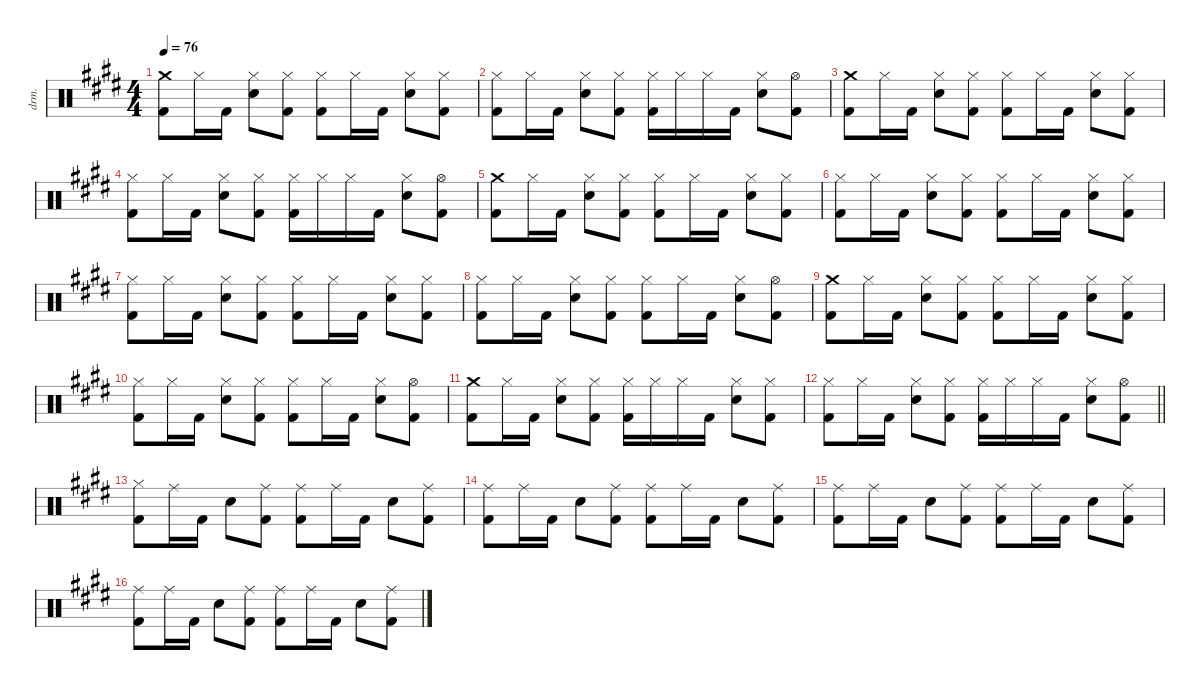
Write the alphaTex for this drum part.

\defaultSystemsLayout 4
\hideDynamics
\bracketExtendMode nobrackets
\otherSystemsTrackNameOrientation horizontal
\track ("Drums" "drm.") {defaultSystemsLayout 4 instrument percussion}
\staff {score}
\articulation defaults
\ts (4 4)
\tempo 76
\clef neutral
\ks e
("Crash medium (hit)"{acc forcenatural} "Kick (hit) 2"{acc forcenatural}).8{dy f beam Down} "Hi-Hat (closed)"{acc forcenatural}.16{beam Down} "Kick (hit) 2"{acc forcenatural}.16{beam Down} ("Hi-Hat (closed)"{acc forcenatural} "Snare (hit) 2"{acc forcenatural}).8{dy mf beam Down} ("Hi-Hat (closed)"{acc forcenatural} "Kick (hit) 2"{acc forcenatural}).8{dy f beam Down} ("Hi-Hat (closed)"{acc forcenatural} "Kick (hit) 2"{acc forcenatural}).8{beam Down} "Hi-Hat (closed)"{acc forcenatural}.16{beam Down} "Kick (hit) 2"{acc forcenatural}.16{beam Down} ("Hi-Hat (closed)"{acc forcenatural} "Snare (hit) 2"{acc forcenatural}).8{dy mf beam Down} ("Hi-Hat (closed)"{acc forcenatural} "Kick (hit) 2"{acc forcenatural}).8{dy f beam Down} |
("Hi-Hat (closed)"{acc forcenatural} "Kick (hit) 2"{acc forcenatural}).8{beam Down} "Hi-Hat (closed)"{acc forcenatural}.16{beam Down} "Kick (hit) 2"{acc forcenatural}.16{beam Down} ("Hi-Hat (closed)"{acc forcenatural} "Snare (hit) 2"{acc forcenatural}).8{dy mf beam Down} ("Hi-Hat (closed)"{acc forcenatural} "Kick (hit) 2"{acc forcenatural}).8{dy f beam Down} ("Hi-Hat (closed)"{acc forcenatural} "Kick (hit) 2"{acc forcenatural}).16{beam Down} "Hi-Hat (closed)"{acc forcenatural}.16{dy mf beam Down} "Hi-Hat (closed)"{acc forcenatural}.16{dy f beam Down} "Kick (hit) 2"{acc forcenatural}.16{beam Down} ("Hi-Hat (closed)"{acc forcenatural} "Snare (hit) 2"{acc forcenatural}).8{dy mf beam Down} ("Hi-Hat (open)"{acc forcenatural} "Kick (hit) 2"{acc forcenatural}).8{dy f beam Down} |
("Crash medium (hit)"{acc forcenatural} "Kick (hit) 2"{acc forcenatural}).8{beam Down} "Hi-Hat (closed)"{acc forcenatural}.16{beam Down} "Kick (hit) 2"{acc forcenatural}.16{beam Down} ("Hi-Hat (closed)"{acc forcenatural} "Snare (hit) 2"{acc forcenatural}).8{dy mf beam Down} ("Hi-Hat (closed)"{acc forcenatural} "Kick (hit) 2"{acc forcenatural}).8{dy f beam Down} ("Hi-Hat (closed)"{acc forcenatural} "Kick (hit) 2"{acc forcenatural}).8{beam Down} "Hi-Hat (closed)"{acc forcenatural}.16{beam Down} "Kick (hit) 2"{acc forcenatural}.16{beam Down} ("Hi-Hat (closed)"{acc forcenatural} "Snare (hit) 2"{acc forcenatural}).8{dy mf beam Down} ("Hi-Hat (closed)"{acc forcenatural} "Kick (hit) 2"{acc forcenatural}).8{dy f beam Down} |
("Hi-Hat (closed)"{acc forcenatural} "Kick (hit) 2"{acc forcenatural}).8{beam Down} "Hi-Hat (closed)"{acc forcenatural}.16{beam Down} "Kick (hit) 2"{acc forcenatural}.16{beam Down} ("Hi-Hat (closed)"{acc forcenatural} "Snare (hit) 2"{acc forcenatural}).8{dy mf beam Down} ("Hi-Hat (closed)"{acc forcenatural} "Kick (hit) 2"{acc forcenatural}).8{dy f beam Down} ("Hi-Hat (closed)"{acc forcenatural} "Kick (hit) 2"{acc forcenatural}).16{beam Down} "Hi-Hat (closed)"{acc forcenatural}.16{dy mf beam Down} "Hi-Hat (closed)"{acc forcenatural}.16{dy f beam Down} "Kick (hit) 2"{acc forcenatural}.16{beam Down} ("Hi-Hat (closed)"{acc forcenatural} "Snare (hit) 2"{acc forcenatural}).8{dy mf beam Down} ("Hi-Hat (open)"{acc forcenatural} "Kick (hit) 2"{acc forcenatural}).8{dy f beam Down} |
("Crash medium (hit)"{acc forcenatural} "Kick (hit) 2"{acc forcenatural}).8{beam Down} "Hi-Hat (closed)"{acc forcenatural}.16{beam Down} "Kick (hit) 2"{acc forcenatural}.16{beam Down} ("Hi-Hat (closed)"{acc forcenatural} "Snare (hit) 2"{acc forcenatural}).8{dy mf beam Down} ("Hi-Hat (closed)"{acc forcenatural} "Kick (hit) 2"{acc forcenatural}).8{dy f beam Down} ("Hi-Hat (closed)"{acc forcenatural} "Kick (hit) 2"{acc forcenatural}).8{beam Down} "Hi-Hat (closed)"{acc forcenatural}.16{beam Down} "Kick (hit) 2"{acc forcenatural}.16{beam Down} ("Hi-Hat (closed)"{acc forcenatural} "Snare (hit) 2"{acc forcenatural}).8{dy mf beam Down} ("Hi-Hat (closed)"{acc forcenatural} "Kick (hit) 2"{acc forcenatural}).8{dy f beam Down} |
("Hi-Hat (closed)"{acc forcenatural} "Kick (hit) 2"{acc forcenatural}).8{beam Down} "Hi-Hat (closed)"{acc forcenatural}.16{beam Down} "Kick (hit) 2"{acc forcenatural}.16{beam Down} ("Hi-Hat (closed)"{acc forcenatural} "Snare (hit) 2"{acc forcenatural}).8{dy mf beam Down} ("Hi-Hat (closed)"{acc forcenatural} "Kick (hit) 2"{acc forcenatural}).8{dy f beam Down} ("Hi-Hat (closed)"{acc forcenatural} "Kick (hit) 2"{acc forcenatural}).8{beam Down} "Hi-Hat (closed)"{acc forcenatural}.16{beam Down} "Kick (hit) 2"{acc forcenatural}.16{beam Down} ("Hi-Hat (closed)"{acc forcenatural} "Snare (hit) 2"{acc forcenatural}).8{dy mf beam Down} ("Hi-Hat (closed)"{acc forcenatural} "Kick (hit) 2"{acc forcenatural}).8{dy f beam Down} |
("Hi-Hat (closed)"{acc forcenatural} "Kick (hit) 2"{acc forcenatural}).8{beam Down} "Hi-Hat (closed)"{acc forcenatural}.16{beam Down} "Kick (hit) 2"{acc forcenatural}.16{beam Down} ("Hi-Hat (closed)"{acc forcenatural} "Snare (hit) 2"{acc forcenatural}).8{dy mf beam Down} ("Hi-Hat (closed)"{acc forcenatural} "Kick (hit) 2"{acc forcenatural}).8{dy f beam Down} ("Hi-Hat (closed)"{acc forcenatural} "Kick (hit) 2"{acc forcenatural}).8{beam Down} "Hi-Hat (closed)"{acc forcenatural}.16{beam Down} "Kick (hit) 2"{acc forcenatural}.16{beam Down} ("Hi-Hat (closed)"{acc forcenatural} "Snare (hit) 2"{acc forcenatural}).8{dy mf beam Down} ("Hi-Hat (closed)"{acc forcenatural} "Kick (hit) 2"{acc forcenatural}).8{dy f beam Down} |
("Hi-Hat (closed)"{acc forcenatural} "Kick (hit) 2"{acc forcenatural}).8{beam Down} "Hi-Hat (closed)"{acc forcenatural}.16{beam Down} "Kick (hit) 2"{acc forcenatural}.16{beam Down} ("Hi-Hat (closed)"{acc forcenatural} "Snare (hit) 2"{acc forcenatural}).8{dy mf beam Down} ("Hi-Hat (closed)"{acc forcenatural} "Kick (hit) 2"{acc forcenatural}).8{dy f beam Down} ("Hi-Hat (closed)"{acc forcenatural} "Kick (hit) 2"{acc forcenatural}).8{beam Down} "Hi-Hat (closed)"{acc forcenatural}.16{beam Down} "Kick (hit) 2"{acc forcenatural}.16{beam Down} ("Hi-Hat (closed)"{acc forcenatural} "Snare (hit) 2"{acc forcenatural}).8{dy mf beam Down} ("Hi-Hat (open)"{acc forcenatural} "Kick (hit) 2"{acc forcenatural}).8{dy f beam Down} |
("Crash medium (hit)"{acc forcenatural} "Kick (hit) 2"{acc forcenatural}).8{beam Down} "Hi-Hat (closed)"{acc forcenatural}.16{beam Down} "Kick (hit) 2"{acc forcenatural}.16{beam Down} ("Hi-Hat (closed)"{acc forcenatural} "Snare (hit) 2"{acc forcenatural}).8{dy mf beam Down} ("Hi-Hat (closed)"{acc forcenatural} "Kick (hit) 2"{acc forcenatural}).8{dy f beam Down} ("Hi-Hat (closed)"{acc forcenatural} "Kick (hit) 2"{acc forcenatural}).8{beam Down} "Hi-Hat (closed)"{acc forcenatural}.16{beam Down} "Kick (hit) 2"{acc forcenatural}.16{beam Down} ("Hi-Hat (closed)"{acc forcenatural} "Snare (hit) 2"{acc forcenatural}).8{dy mf beam Down} ("Hi-Hat (closed)"{acc forcenatural} "Kick (hit) 2"{acc forcenatural}).8{dy f beam Down} |
("Hi-Hat (closed)"{acc forcenatural} "Kick (hit) 2"{acc forcenatural}).8{beam Down} "Hi-Hat (closed)"{acc forcenatural}.16{beam Down} "Kick (hit) 2"{acc forcenatural}.16{beam Down} ("Hi-Hat (closed)"{acc forcenatural} "Snare (hit) 2"{acc forcenatural}).8{dy mf beam Down} ("Hi-Hat (closed)"{acc forcenatural} "Kick (hit) 2"{acc forcenatural}).8{dy f beam Down} ("Hi-Hat (closed)"{acc forcenatural} "Kick (hit) 2"{acc forcenatural}).8{beam Down} "Hi-Hat (closed)"{acc forcenatural}.16{beam Down} "Kick (hit) 2"{acc forcenatural}.16{beam Down} ("Hi-Hat (closed)"{acc forcenatural} "Snare (hit) 2"{acc forcenatural}).8{dy mf beam Down} ("Hi-Hat (open)"{acc forcenatural} "Kick (hit) 2"{acc forcenatural}).8{dy f beam Down} |
("Crash medium (hit)"{acc forcenatural} "Kick (hit) 2"{acc forcenatural}).8{beam Down} "Hi-Hat (closed)"{acc forcenatural}.16{beam Down} "Kick (hit) 2"{acc forcenatural}.16{beam Down} ("Hi-Hat (closed)"{acc forcenatural} "Snare (hit) 2"{acc forcenatural}).8{dy mf beam Down} ("Hi-Hat (closed)"{acc forcenatural} "Kick (hit) 2"{acc forcenatural}).8{dy f beam Down} ("Hi-Hat (closed)"{acc forcenatural} "Kick (hit) 2"{acc forcenatural}).16{beam Down} "Hi-Hat (closed)"{acc forcenatural}.16{dy mf beam Down} "Hi-Hat (closed)"{acc forcenatural}.16{dy f beam Down} "Kick (hit) 2"{acc forcenatural}.16{beam Down} ("Hi-Hat (closed)"{acc forcenatural} "Snare (hit) 2"{acc forcenatural}).8{dy mf beam Down} ("Hi-Hat (closed)"{acc forcenatural} "Kick (hit) 2"{acc forcenatural}).8{dy f beam Down} |
\barLineRight lightlight
("Hi-Hat (closed)"{acc forcenatural} "Kick (hit) 2"{acc forcenatural}).8{beam Down} "Hi-Hat (closed)"{acc forcenatural}.16{beam Down} "Kick (hit) 2"{acc forcenatural}.16{beam Down} ("Hi-Hat (closed)"{acc forcenatural} "Snare (hit) 2"{acc forcenatural}).8{dy mf beam Down} ("Hi-Hat (closed)"{acc forcenatural} "Kick (hit) 2"{acc forcenatural}).8{dy f beam Down} ("Hi-Hat (closed)"{acc forcenatural} "Kick (hit) 2"{acc forcenatural}).16{beam Down} "Hi-Hat (closed)"{acc forcenatural}.16{beam Down} "Hi-Hat (closed)"{acc forcenatural}.16{beam Down} "Kick (hit) 2"{acc forcenatural}.16{beam Down} ("Hi-Hat (closed)"{acc forcenatural} "Snare (hit) 2"{acc forcenatural}).8{dy mf beam Down} ("Hi-Hat (open)"{acc forcenatural} "Kick (hit) 2"{acc forcenatural}).8{dy f beam Down} |
("Hi-Hat (closed)"{acc forcenatural} "Kick (hit) 2"{acc forcenatural}).8{beam Down} "Ride (middle)"{acc forcenatural}.16{beam Down} "Kick (hit) 2"{acc forcenatural}.16{beam Down} "Snare (hit) 2"{acc forcenatural}.8{beam Down} ("Ride (middle)"{acc forcenatural} "Kick (hit) 2"{acc forcenatural}).8{beam Down} ("Ride (middle)"{acc forcenatural} "Kick (hit) 2"{acc forcenatural}).8{beam Down} "Ride (middle)"{acc forcenatural}.16{beam Down} "Kick (hit) 2"{acc forcenatural}.16{beam Down} "Snare (hit) 2"{acc forcenatural}.8{beam Down} ("Ride (middle)"{acc forcenatural} "Kick (hit) 2"{acc forcenatural}).8{beam Down} |
("Ride (middle)"{acc forcenatural} "Kick (hit) 2"{acc forcenatural}).8{beam Down} "Ride (middle)"{acc forcenatural}.16{beam Down} "Kick (hit) 2"{acc forcenatural}.16{beam Down} "Snare (hit) 2"{acc forcenatural}.8{beam Down} ("Ride (middle)"{acc forcenatural} "Kick (hit) 2"{acc forcenatural}).8{beam Down} ("Ride (middle)"{acc forcenatural} "Kick (hit) 2"{acc forcenatural}).8{beam Down} "Ride (middle)"{acc forcenatural}.16{beam Down} "Kick (hit) 2"{acc forcenatural}.16{beam Down} "Snare (hit) 2"{acc forcenatural}.8{beam Down} ("Ride (middle)"{acc forcenatural} "Kick (hit) 2"{acc forcenatural}).8{beam Down} |
("Ride (middle)"{acc forcenatural} "Kick (hit) 2"{acc forcenatural}).8{beam Down} "Ride (middle)"{acc forcenatural}.16{beam Down} "Kick (hit) 2"{acc forcenatural}.16{beam Down} "Snare (hit) 2"{acc forcenatural}.8{beam Down} ("Ride (middle)"{acc forcenatural} "Kick (hit) 2"{acc forcenatural}).8{beam Down} ("Ride (middle)"{acc forcenatural} "Kick (hit) 2"{acc forcenatural}).8{beam Down} "Ride (middle)"{acc forcenatural}.16{beam Down} "Kick (hit) 2"{acc forcenatural}.16{beam Down} "Snare (hit) 2"{acc forcenatural}.8{beam Down} ("Ride (middle)"{acc forcenatural} "Kick (hit) 2"{acc forcenatural}).8{beam Down} |
("Ride (middle)"{acc forcenatural} "Kick (hit) 2"{acc forcenatural}).8{beam Down} "Ride (middle)"{acc forcenatural}.16{beam Down} "Kick (hit) 2"{acc forcenatural}.16{beam Down} "Snare (hit) 2"{acc forcenatural}.8{beam Down} ("Ride (middle)"{acc forcenatural} "Kick (hit) 2"{acc forcenatural}).8{beam Down} ("Ride (middle)"{acc forcenatural} "Kick (hit) 2"{acc forcenatural}).8{beam Down} "Ride (middle)"{acc forcenatural}.16{beam Down} "Kick (hit) 2"{acc forcenatural}.16{beam Down} "Snare (hit) 2"{acc forcenatural}.8{beam Down} ("Ride (middle)"{acc forcenatural} "Kick (hit) 2"{acc forcenatural}).8{beam Down}
